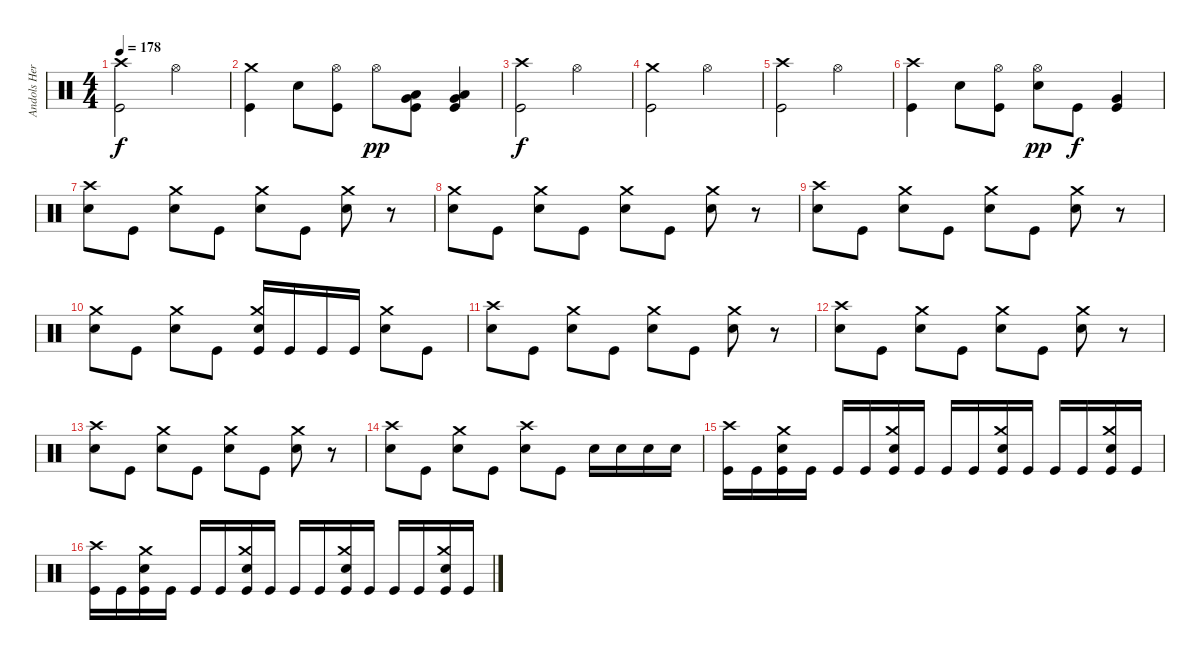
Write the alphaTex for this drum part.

\track ("Andols Herrick" "Andols Her") {instrument percussion}
\staff {score}
\articulation defaults
\ts (4 4)
\tempo 178
\clef neutral
\ks c
("Crash high (hit)" "Kick (hit)").2{dy f} "Hi-Hat (open)".2 |
("Crash medium (hit)" "Kick (hit)").4 "Electric Snare (hit)".8 ("Hi-Hat (open)" "Kick (hit)").8 "Hi-Hat (open)".8{dy pp} ("Very Low Tom (hit)" "Low Floor Tom (hit)" "Kick (hit)").8 ("Very Low Tom (hit)" "Low Floor Tom (hit)" "Kick (hit)").4 |
("Crash high (hit)" "Kick (hit)").2{dy f} "Hi-Hat (open)".2 |
("Crash medium (hit)" "Kick (hit)").2 "Hi-Hat (open)".2 |
("Crash high (hit)" "Kick (hit)").2 "Hi-Hat (open)".2 |
("Crash high (hit)" "Kick (hit)").4 "Electric Snare (hit)".8 ("Hi-Hat (open)" "Kick (hit)").8 ("Hi-Hat (open)" "Electric Snare (hit)").8{dy pp} "Kick (hit)".8{dy f} ("Very Low Tom (hit)" "Kick (hit)").4 |
("Crash high (hit)" "Electric Snare (hit)").8 "Kick (hit)".8 ("Crash medium (hit)" "Electric Snare (hit)").8 "Kick (hit)".8 ("Crash medium (hit)" "Electric Snare (hit)").8 "Kick (hit)".8 ("Crash medium (hit)" "Electric Snare (hit)").8 r.8 |
("Crash medium (hit)" "Electric Snare (hit)").8 "Kick (hit)".8 ("Crash medium (hit)" "Electric Snare (hit)").8 "Kick (hit)".8 ("Crash medium (hit)" "Electric Snare (hit)").8 "Kick (hit)".8 ("Crash medium (hit)" "Electric Snare (hit)").8 r.8 |
("Crash high (hit)" "Electric Snare (hit)").8 "Kick (hit)".8 ("Crash medium (hit)" "Electric Snare (hit)").8 "Kick (hit)".8 ("Crash medium (hit)" "Electric Snare (hit)").8 "Kick (hit)".8 ("Crash medium (hit)" "Electric Snare (hit)").8 r.8 |
("Crash medium (hit)" "Electric Snare (hit)").8 "Kick (hit)".8 ("Crash medium (hit)" "Electric Snare (hit)").8 "Kick (hit)".8 ("Crash medium (hit)" "Electric Snare (hit)" "Kick (hit)").16 "Kick (hit)".16 "Kick (hit)".16 "Kick (hit)".16 ("Crash medium (hit)" "Electric Snare (hit)").8 "Kick (hit)".8 |
("Crash high (hit)" "Electric Snare (hit)").8 "Kick (hit)".8 ("Crash medium (hit)" "Electric Snare (hit)").8 "Kick (hit)".8 ("Crash medium (hit)" "Electric Snare (hit)").8 "Kick (hit)".8 ("Crash medium (hit)" "Electric Snare (hit)").8 r.8 |
("Crash high (hit)" "Electric Snare (hit)").8 "Kick (hit)".8 ("Crash medium (hit)" "Electric Snare (hit)").8 "Kick (hit)".8 ("Crash medium (hit)" "Electric Snare (hit)").8 "Kick (hit)".8 ("Crash medium (hit)" "Electric Snare (hit)").8 r.8 |
("Crash high (hit)" "Electric Snare (hit)").8 "Kick (hit)".8 ("Crash medium (hit)" "Electric Snare (hit)").8 "Kick (hit)".8 ("Crash medium (hit)" "Electric Snare (hit)").8 "Kick (hit)".8 ("Crash medium (hit)" "Electric Snare (hit)").8 r.8 |
("Crash high (hit)" "Electric Snare (hit)").8 "Kick (hit)".8 ("Crash medium (hit)" "Electric Snare (hit)").8 "Kick (hit)".8 ("Crash high (hit)" "Electric Snare (hit)").8 "Kick (hit)".8 "Electric Snare (hit)".16 "Electric Snare (hit)".16 "Electric Snare (hit)".16 "Electric Snare (hit)".16 |
("Crash high (hit)" "Kick (hit)").16 "Kick (hit)".16 ("Crash medium (hit)" "Electric Snare (hit)" "Kick (hit)").16 "Kick (hit)".16 "Kick (hit)".16 "Kick (hit)".16 ("Crash medium (hit)" "Electric Snare (hit)" "Kick (hit)").16 "Kick (hit)".16 "Kick (hit)".16 "Kick (hit)".16 ("Crash medium (hit)" "Electric Snare (hit)" "Kick (hit)").16 "Kick (hit)".16 "Kick (hit)".16 "Kick (hit)".16 ("Crash medium (hit)" "Electric Snare (hit)" "Kick (hit)").16 "Kick (hit)".16 |
("Crash high (hit)" "Kick (hit)").16 "Kick (hit)".16 ("Crash medium (hit)" "Electric Snare (hit)" "Kick (hit)").16 "Kick (hit)".16 "Kick (hit)".16 "Kick (hit)".16 ("Crash medium (hit)" "Electric Snare (hit)" "Kick (hit)").16 "Kick (hit)".16 "Kick (hit)".16 "Kick (hit)".16 ("Crash medium (hit)" "Electric Snare (hit)" "Kick (hit)").16 "Kick (hit)".16 "Kick (hit)".16 "Kick (hit)".16 ("Crash medium (hit)" "Electric Snare (hit)" "Kick (hit)").16 "Kick (hit)".16
